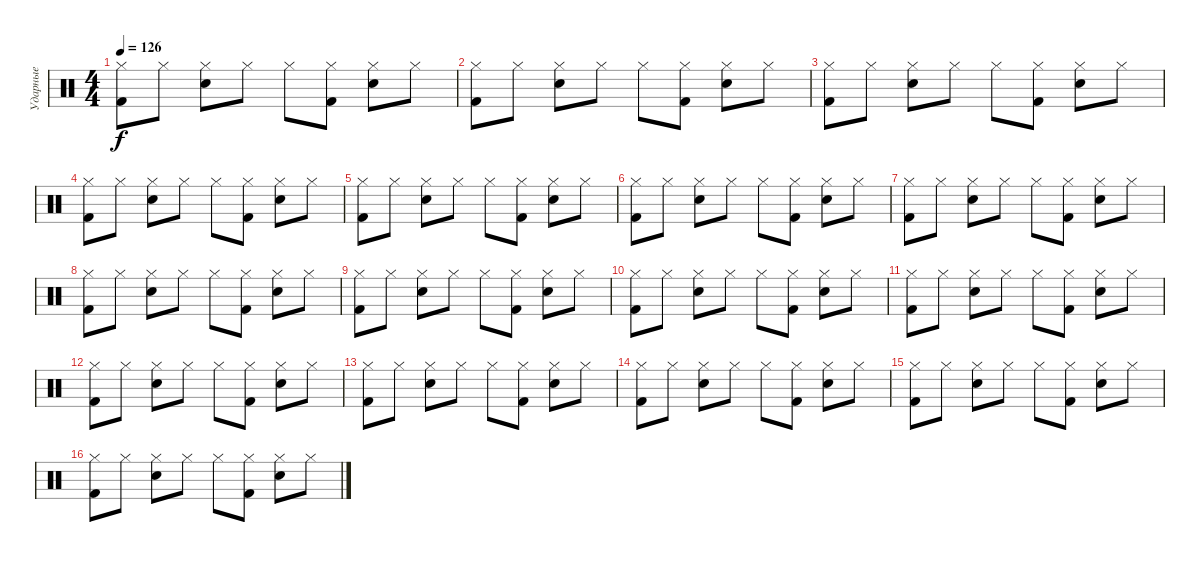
\track ("Ударные" "Ударные") {instrument percussion}
\staff {score}
\articulation defaults
\ts (4 4)
\tempo 126
\clef neutral
\ks c
("Hi-Hat (closed)" "Kick (hit) 2").8{dy f} "Hi-Hat (closed)".8 ("Hi-Hat (closed)" "Snare (hit) 2").8 "Hi-Hat (closed)".8 "Hi-Hat (closed)".8 ("Hi-Hat (closed)" "Kick (hit) 2").8 ("Hi-Hat (closed)" "Snare (hit) 2").8 "Hi-Hat (closed)".8 |
("Hi-Hat (closed)" "Kick (hit) 2").8 "Hi-Hat (closed)".8 ("Hi-Hat (closed)" "Snare (hit) 2").8 "Hi-Hat (closed)".8 "Hi-Hat (closed)".8 ("Hi-Hat (closed)" "Kick (hit) 2").8 ("Hi-Hat (closed)" "Snare (hit) 2").8 "Hi-Hat (closed)".8 |
("Hi-Hat (closed)" "Kick (hit) 2").8 "Hi-Hat (closed)".8 ("Hi-Hat (closed)" "Snare (hit) 2").8 "Hi-Hat (closed)".8 "Hi-Hat (closed)".8 ("Hi-Hat (closed)" "Kick (hit) 2").8 ("Hi-Hat (closed)" "Snare (hit) 2").8 "Hi-Hat (closed)".8 |
("Hi-Hat (closed)" "Kick (hit) 2").8 "Hi-Hat (closed)".8 ("Hi-Hat (closed)" "Snare (hit) 2").8 "Hi-Hat (closed)".8 "Hi-Hat (closed)".8 ("Hi-Hat (closed)" "Kick (hit) 2").8 ("Hi-Hat (closed)" "Snare (hit) 2").8 "Hi-Hat (closed)".8 |
("Hi-Hat (closed)" "Kick (hit) 2").8 "Hi-Hat (closed)".8 ("Hi-Hat (closed)" "Snare (hit) 2").8 "Hi-Hat (closed)".8 "Hi-Hat (closed)".8 ("Hi-Hat (closed)" "Kick (hit) 2").8 ("Hi-Hat (closed)" "Snare (hit) 2").8 "Hi-Hat (closed)".8 |
("Hi-Hat (closed)" "Kick (hit) 2").8 "Hi-Hat (closed)".8 ("Hi-Hat (closed)" "Snare (hit) 2").8 "Hi-Hat (closed)".8 "Hi-Hat (closed)".8 ("Hi-Hat (closed)" "Kick (hit) 2").8 ("Hi-Hat (closed)" "Snare (hit) 2").8 "Hi-Hat (closed)".8 |
("Hi-Hat (closed)" "Kick (hit) 2").8 "Hi-Hat (closed)".8 ("Hi-Hat (closed)" "Snare (hit) 2").8 "Hi-Hat (closed)".8 "Hi-Hat (closed)".8 ("Hi-Hat (closed)" "Kick (hit) 2").8 ("Hi-Hat (closed)" "Snare (hit) 2").8 "Hi-Hat (closed)".8 |
("Hi-Hat (closed)" "Kick (hit) 2").8 "Hi-Hat (closed)".8 ("Hi-Hat (closed)" "Snare (hit) 2").8 "Hi-Hat (closed)".8 "Hi-Hat (closed)".8 ("Hi-Hat (closed)" "Kick (hit) 2").8 ("Hi-Hat (closed)" "Snare (hit) 2").8 "Hi-Hat (closed)".8 |
("Hi-Hat (closed)" "Kick (hit) 2").8 "Hi-Hat (closed)".8 ("Hi-Hat (closed)" "Snare (hit) 2").8 "Hi-Hat (closed)".8 "Hi-Hat (closed)".8 ("Hi-Hat (closed)" "Kick (hit) 2").8 ("Hi-Hat (closed)" "Snare (hit) 2").8 "Hi-Hat (closed)".8 |
("Hi-Hat (closed)" "Kick (hit) 2").8 "Hi-Hat (closed)".8 ("Hi-Hat (closed)" "Snare (hit) 2").8 "Hi-Hat (closed)".8 "Hi-Hat (closed)".8 ("Hi-Hat (closed)" "Kick (hit) 2").8 ("Hi-Hat (closed)" "Snare (hit) 2").8 "Hi-Hat (closed)".8 |
("Hi-Hat (closed)" "Kick (hit) 2").8 "Hi-Hat (closed)".8 ("Hi-Hat (closed)" "Snare (hit) 2").8 "Hi-Hat (closed)".8 "Hi-Hat (closed)".8 ("Hi-Hat (closed)" "Kick (hit) 2").8 ("Hi-Hat (closed)" "Snare (hit) 2").8 "Hi-Hat (closed)".8 |
("Hi-Hat (closed)" "Kick (hit) 2").8 "Hi-Hat (closed)".8 ("Hi-Hat (closed)" "Snare (hit) 2").8 "Hi-Hat (closed)".8 "Hi-Hat (closed)".8 ("Hi-Hat (closed)" "Kick (hit) 2").8 ("Hi-Hat (closed)" "Snare (hit) 2").8 "Hi-Hat (closed)".8 |
("Hi-Hat (closed)" "Kick (hit) 2").8 "Hi-Hat (closed)".8 ("Hi-Hat (closed)" "Snare (hit) 2").8 "Hi-Hat (closed)".8 "Hi-Hat (closed)".8 ("Hi-Hat (closed)" "Kick (hit) 2").8 ("Hi-Hat (closed)" "Snare (hit) 2").8 "Hi-Hat (closed)".8 |
("Hi-Hat (closed)" "Kick (hit) 2").8 "Hi-Hat (closed)".8 ("Hi-Hat (closed)" "Snare (hit) 2").8 "Hi-Hat (closed)".8 "Hi-Hat (closed)".8 ("Hi-Hat (closed)" "Kick (hit) 2").8 ("Hi-Hat (closed)" "Snare (hit) 2").8 "Hi-Hat (closed)".8 |
("Hi-Hat (closed)" "Kick (hit) 2").8 "Hi-Hat (closed)".8 ("Hi-Hat (closed)" "Snare (hit) 2").8 "Hi-Hat (closed)".8 "Hi-Hat (closed)".8 ("Hi-Hat (closed)" "Kick (hit) 2").8 ("Hi-Hat (closed)" "Snare (hit) 2").8 "Hi-Hat (closed)".8 |
("Hi-Hat (closed)" "Kick (hit) 2").8 "Hi-Hat (closed)".8 ("Hi-Hat (closed)" "Snare (hit) 2").8 "Hi-Hat (closed)".8 "Hi-Hat (closed)".8 ("Hi-Hat (closed)" "Kick (hit) 2").8 ("Hi-Hat (closed)" "Snare (hit) 2").8 "Hi-Hat (closed)".8
